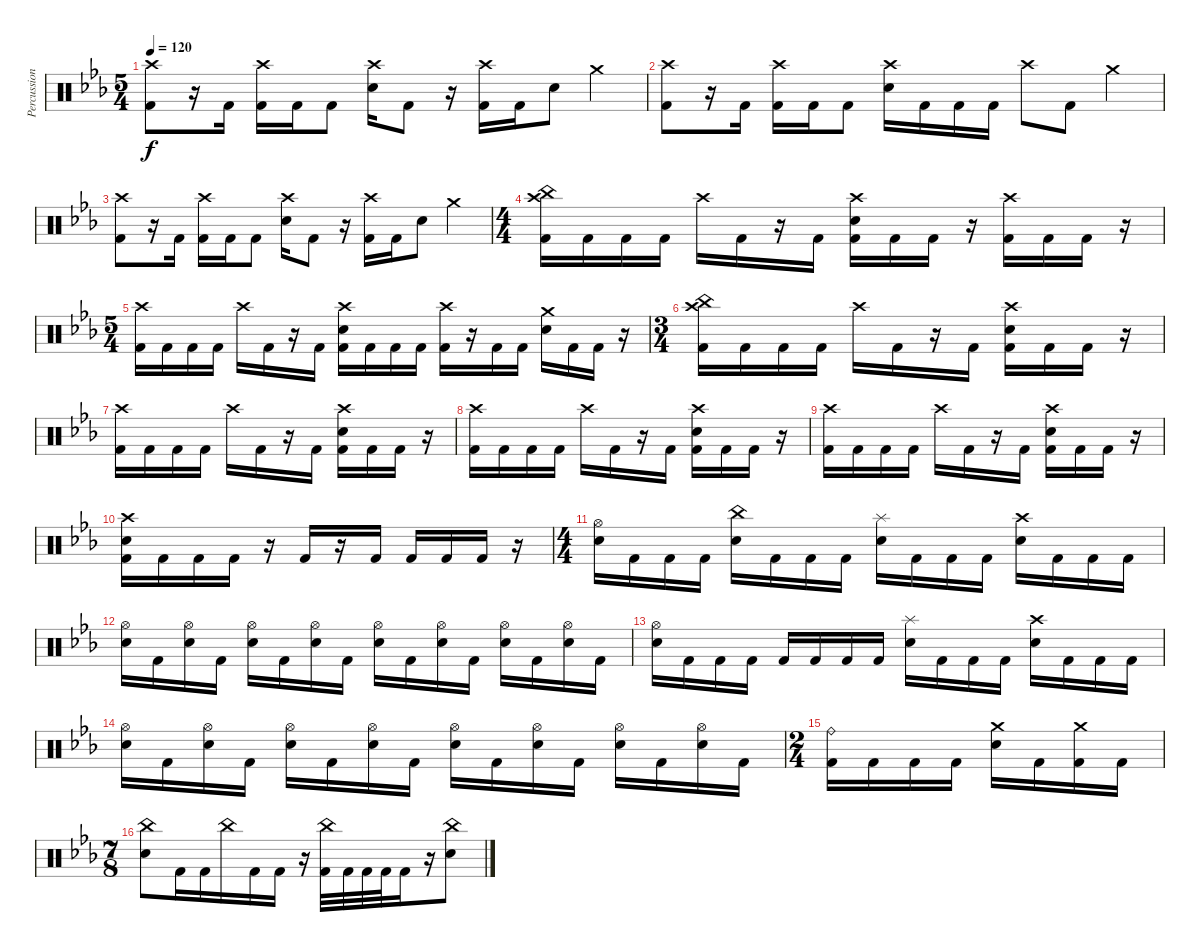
\track ("Percussion" "Percussion") {instrument percussion}
\staff {score}
\articulation defaults
\ts (5 4)
\tempo 120
\clef neutral
\ks eb
("Crash high (hit)" "Kick (hit) 2").8{dy f} r.16 "Kick (hit) 2".16 ("Crash high (hit)" "Kick (hit) 2").16 "Kick (hit) 2".16 "Kick (hit) 2".8 ("Crash high (hit)" "Electric Snare (hit)").16 "Kick (hit) 2".8 r.16 ("Crash high (hit)" "Kick (hit) 2").16 "Kick (hit) 2".16 "Electric Snare (hit)".8 "Crash medium (hit)".4 |
("Crash high (hit)" "Kick (hit) 2").8 r.16 "Kick (hit) 2".16 ("Crash high (hit)" "Kick (hit) 2").16 "Kick (hit) 2".16 "Kick (hit) 2".8 ("Crash high (hit)" "Electric Snare (hit)").16 "Kick (hit) 2".16 "Kick (hit) 2".16 "Kick (hit) 2".16 "Crash high (hit)".8 "Kick (hit) 2".8 "Crash medium (hit)".4 |
("Crash high (hit)" "Kick (hit) 2").8 r.16 "Kick (hit) 2".16 ("Crash high (hit)" "Kick (hit) 2").16 "Kick (hit) 2".16 "Kick (hit) 2".8 ("Crash high (hit)" "Electric Snare (hit)").16 "Kick (hit) 2".8 r.16 ("Crash high (hit)" "Kick (hit) 2").16 "Kick (hit) 2".16 "Electric Snare (hit)".8 "Crash medium (hit)".4 |
\ts (4 4)
("China (hit)" "Crash high (hit)" "Kick (hit) 2").16 "Kick (hit) 2".16 "Kick (hit) 2".16 "Kick (hit) 2".16 "Crash high (hit)".16 "Kick (hit) 2".16 r.16 "Kick (hit) 2".16 ("Crash high (hit)" "Electric Snare (hit)" "Kick (hit) 2").16 "Kick (hit) 2".16 "Kick (hit) 2".16 r.16 ("Crash high (hit)" "Kick (hit) 2").16 "Kick (hit) 2".16 "Kick (hit) 2".16 r.16 |
\ts (5 4)
("Crash high (hit)" "Kick (hit) 2").16 "Kick (hit) 2".16 "Kick (hit) 2".16 "Kick (hit) 2".16 "Crash high (hit)".16 "Kick (hit) 2".16 r.16 "Kick (hit) 2".16 ("Crash high (hit)" "Electric Snare (hit)" "Kick (hit) 2").16 "Kick (hit) 2".16 "Kick (hit) 2".16 "Kick (hit) 2".16 ("Crash high (hit)" "Kick (hit) 2").16 r.16 "Kick (hit) 2".16 "Kick (hit) 2".16 ("Crash medium (hit)" "Electric Snare (hit)").16 "Kick (hit) 2".16 "Kick (hit) 2".16 r.16 |
\ts (3 4)
("China (hit)" "Crash high (hit)" "Kick (hit) 2").16 "Kick (hit) 2".16 "Kick (hit) 2".16 "Kick (hit) 2".16 "Crash high (hit)".16 "Kick (hit) 2".16 r.16 "Kick (hit) 2".16 ("Crash high (hit)" "Electric Snare (hit)" "Kick (hit) 2").16 "Kick (hit) 2".16 "Kick (hit) 2".16 r.16 |
("Crash high (hit)" "Kick (hit) 2").16 "Kick (hit) 2".16 "Kick (hit) 2".16 "Kick (hit) 2".16 "Crash high (hit)".16 "Kick (hit) 2".16 r.16 "Kick (hit) 2".16 ("Crash high (hit)" "Electric Snare (hit)" "Kick (hit) 2").16 "Kick (hit) 2".16 "Kick (hit) 2".16 r.16 |
("Crash high (hit)" "Kick (hit) 2").16 "Kick (hit) 2".16 "Kick (hit) 2".16 "Kick (hit) 2".16 "Crash high (hit)".16 "Kick (hit) 2".16 r.16 "Kick (hit) 2".16 ("Crash high (hit)" "Electric Snare (hit)" "Kick (hit) 2").16 "Kick (hit) 2".16 "Kick (hit) 2".16 r.16 |
("Crash high (hit)" "Kick (hit) 2").16 "Kick (hit) 2".16 "Kick (hit) 2".16 "Kick (hit) 2".16 "Crash high (hit)".16 "Kick (hit) 2".16 r.16 "Kick (hit) 2".16 ("Crash high (hit)" "Electric Snare (hit)" "Kick (hit) 2").16 "Kick (hit) 2".16 "Kick (hit) 2".16 r.16 |
("Crash high (hit)" "Electric Snare (hit)" "Kick (hit) 2").16 "Kick (hit) 2".16 "Kick (hit) 2".16 "Kick (hit) 2".16 r.16 "Kick (hit) 2".16 r.16 "Kick (hit) 2".16 "Kick (hit) 2".16 "Kick (hit) 2".16 "Kick (hit) 2".16 r.16 |
\ts (4 4)
("Hi-Hat (open)" "Electric Snare (hit)").16 "Kick (hit) 2".16 "Kick (hit) 2".16 "Kick (hit) 2".16 ("China (hit)" "Electric Snare (hit)").16 "Kick (hit) 2".16 "Kick (hit) 2".16 "Kick (hit) 2".16 ("Splash (hit)" "Electric Snare (hit)").16 "Kick (hit) 2".16 "Kick (hit) 2".16 "Kick (hit) 2".16 ("Crash high (hit)" "Electric Snare (hit)").16 "Kick (hit) 2".16 "Kick (hit) 2".16 "Kick (hit) 2".16 |
("Hi-Hat (open)" "Electric Snare (hit)").16 "Kick (hit) 2".16 ("Hi-Hat (open)" "Electric Snare (hit)").16 "Kick (hit) 2".16 ("Hi-Hat (open)" "Electric Snare (hit)").16 "Kick (hit) 2".16 ("Hi-Hat (open)" "Electric Snare (hit)").16 "Kick (hit) 2".16 ("Hi-Hat (open)" "Electric Snare (hit)").16 "Kick (hit) 2".16 ("Hi-Hat (open)" "Electric Snare (hit)").16 "Kick (hit) 2".16 ("Hi-Hat (open)" "Electric Snare (hit)").16 "Kick (hit) 2".16 ("Hi-Hat (open)" "Electric Snare (hit)").16 "Kick (hit) 2".16 |
("Hi-Hat (open)" "Electric Snare (hit)").16 "Kick (hit) 2".16 "Kick (hit) 2".16 "Kick (hit) 2".16 "Kick (hit) 2".16 "Kick (hit) 2".16 "Kick (hit) 2".16 "Kick (hit) 2".16 ("Splash (hit)" "Electric Snare (hit)").16 "Kick (hit) 2".16 "Kick (hit) 2".16 "Kick (hit) 2".16 ("Crash high (hit)" "Electric Snare (hit)").16 "Kick (hit) 2".16 "Kick (hit) 2".16 "Kick (hit) 2".16 |
("Hi-Hat (open)" "Electric Snare (hit)").16 "Kick (hit) 2".16 ("Hi-Hat (open)" "Electric Snare (hit)").16 "Kick (hit) 2".16 ("Hi-Hat (open)" "Electric Snare (hit)").16 "Kick (hit) 2".16 ("Hi-Hat (open)" "Electric Snare (hit)").16 "Kick (hit) 2".16 ("Hi-Hat (open)" "Electric Snare (hit)").16 "Kick (hit) 2".16 ("Hi-Hat (open)" "Electric Snare (hit)").16 "Kick (hit) 2".16 ("Hi-Hat (open)" "Electric Snare (hit)").16 "Kick (hit) 2".16 ("Hi-Hat (open)" "Electric Snare (hit)").16 "Kick (hit) 2".16 |
\ts (2 4)
("Ride (bell)" "Kick (hit) 2").16 "Kick (hit) 2".16 "Kick (hit) 2".16 "Kick (hit) 2".16 ("Crash medium (hit)" "Electric Snare (hit)").16 "Kick (hit) 2".16 ("Crash medium (hit)" "Kick (hit) 2").16 "Kick (hit) 2".16 |
\ts (7 8)
("China (hit)" "Electric Snare (hit)").8 "Kick (hit) 2".16 "Kick (hit) 2".16 "China (hit)".16 "Kick (hit) 2".16 "Kick (hit) 2".16 r.16 ("China (hit)" "Kick (hit) 2").32 "Kick (hit) 2".32 "Kick (hit) 2".32 "Kick (hit) 2".32 "Kick (hit) 2".16 r.16 ("China (hit)" "Electric Snare (hit)").8
